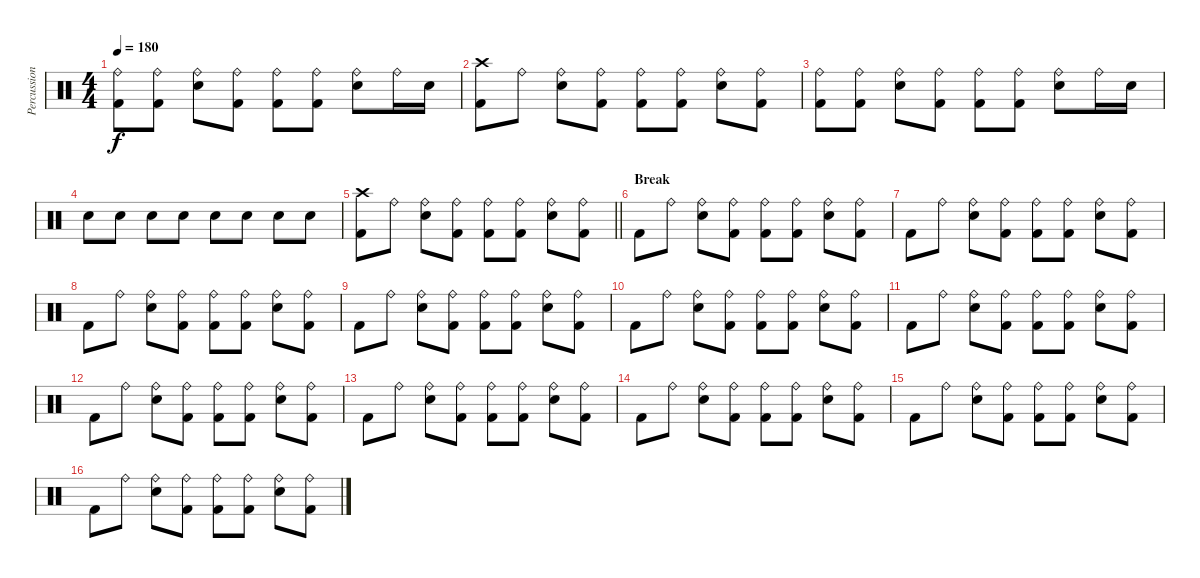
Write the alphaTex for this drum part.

\track ("Percussions" "Percussion") {instrument percussion}
\staff {score}
\articulation defaults
\ts (4 4)
\tempo 180
\clef neutral
\ks c
("Ride (bell)" "Kick (hit) 2").8{dy f} ("Ride (bell)" "Kick (hit) 2").8 ("Ride (bell)" "Snare (hit) 2").8 ("Ride (bell)" "Kick (hit) 2").8 ("Ride (bell)" "Kick (hit) 2").8 ("Ride (bell)" "Kick (hit) 2").8 ("Ride (bell)" "Snare (hit) 2").8 "Ride (bell)".16 "Snare (hit) 2".16 |
("Crash high (hit)" "Kick (hit) 2").8 "Ride (bell)".8 ("Ride (bell)" "Snare (hit) 2").8 ("Ride (bell)" "Kick (hit) 2").8 ("Ride (bell)" "Kick (hit) 2").8 ("Ride (bell)" "Kick (hit) 2").8 ("Ride (bell)" "Snare (hit) 2").8 ("Ride (bell)" "Kick (hit) 2").8 |
("Ride (bell)" "Kick (hit) 2").8 ("Ride (bell)" "Kick (hit) 2").8 ("Ride (bell)" "Snare (hit) 2").8 ("Ride (bell)" "Kick (hit) 2").8 ("Ride (bell)" "Kick (hit) 2").8 ("Ride (bell)" "Kick (hit) 2").8 ("Ride (bell)" "Snare (hit) 2").8 "Ride (bell)".16 "Snare (hit) 2".16 |
"Snare (hit) 2".8 "Snare (hit) 2".8 "Snare (hit) 2".8 "Snare (hit) 2".8 "Snare (hit) 2".8 "Snare (hit) 2".8 "Snare (hit) 2".8 "Snare (hit) 2".8 |
\barLineRight lightlight
("Crash high (hit)" "Kick (hit) 2").8 "Ride (bell)".8 ("Ride (bell)" "Snare (hit) 2").8 ("Ride (bell)" "Kick (hit) 2").8 ("Ride (bell)" "Kick (hit) 2").8 ("Ride (bell)" "Kick (hit) 2").8 ("Ride (bell)" "Snare (hit) 2").8 ("Ride (bell)" "Kick (hit) 2").8 |
\section ("" "Break")
"Kick (hit) 2".8 "Ride (bell)".8 ("Ride (bell)" "Snare (hit) 2").8 ("Ride (bell)" "Kick (hit) 2").8 ("Ride (bell)" "Kick (hit) 2").8 ("Ride (bell)" "Kick (hit) 2").8 ("Ride (bell)" "Snare (hit) 2").8 ("Ride (bell)" "Kick (hit) 2").8 |
"Kick (hit) 2".8 "Ride (bell)".8 ("Ride (bell)" "Snare (hit) 2").8 ("Ride (bell)" "Kick (hit) 2").8 ("Ride (bell)" "Kick (hit) 2").8 ("Ride (bell)" "Kick (hit) 2").8 ("Ride (bell)" "Snare (hit) 2").8 ("Ride (bell)" "Kick (hit) 2").8 |
"Kick (hit) 2".8 "Ride (bell)".8 ("Ride (bell)" "Snare (hit) 2").8 ("Ride (bell)" "Kick (hit) 2").8 ("Ride (bell)" "Kick (hit) 2").8 ("Ride (bell)" "Kick (hit) 2").8 ("Ride (bell)" "Snare (hit) 2").8 ("Ride (bell)" "Kick (hit) 2").8 |
"Kick (hit) 2".8 "Ride (bell)".8 ("Ride (bell)" "Snare (hit) 2").8 ("Ride (bell)" "Kick (hit) 2").8 ("Ride (bell)" "Kick (hit) 2").8 ("Ride (bell)" "Kick (hit) 2").8 ("Ride (bell)" "Snare (hit) 2").8 ("Ride (bell)" "Kick (hit) 2").8 |
"Kick (hit) 2".8 "Ride (bell)".8 ("Ride (bell)" "Snare (hit) 2").8 ("Ride (bell)" "Kick (hit) 2").8 ("Ride (bell)" "Kick (hit) 2").8 ("Ride (bell)" "Kick (hit) 2").8 ("Ride (bell)" "Snare (hit) 2").8 ("Ride (bell)" "Kick (hit) 2").8 |
"Kick (hit) 2".8 "Ride (bell)".8 ("Ride (bell)" "Snare (hit) 2").8 ("Ride (bell)" "Kick (hit) 2").8 ("Ride (bell)" "Kick (hit) 2").8 ("Ride (bell)" "Kick (hit) 2").8 ("Ride (bell)" "Snare (hit) 2").8 ("Ride (bell)" "Kick (hit) 2").8 |
"Kick (hit) 2".8 "Ride (bell)".8 ("Ride (bell)" "Snare (hit) 2").8 ("Ride (bell)" "Kick (hit) 2").8 ("Ride (bell)" "Kick (hit) 2").8 ("Ride (bell)" "Kick (hit) 2").8 ("Ride (bell)" "Snare (hit) 2").8 ("Ride (bell)" "Kick (hit) 2").8 |
"Kick (hit) 2".8 "Ride (bell)".8 ("Ride (bell)" "Snare (hit) 2").8 ("Ride (bell)" "Kick (hit) 2").8 ("Ride (bell)" "Kick (hit) 2").8 ("Ride (bell)" "Kick (hit) 2").8 ("Ride (bell)" "Snare (hit) 2").8 ("Ride (bell)" "Kick (hit) 2").8 |
"Kick (hit) 2".8 "Ride (bell)".8 ("Ride (bell)" "Snare (hit) 2").8 ("Ride (bell)" "Kick (hit) 2").8 ("Ride (bell)" "Kick (hit) 2").8 ("Ride (bell)" "Kick (hit) 2").8 ("Ride (bell)" "Snare (hit) 2").8 ("Ride (bell)" "Kick (hit) 2").8 |
"Kick (hit) 2".8 "Ride (bell)".8 ("Ride (bell)" "Snare (hit) 2").8 ("Ride (bell)" "Kick (hit) 2").8 ("Ride (bell)" "Kick (hit) 2").8 ("Ride (bell)" "Kick (hit) 2").8 ("Ride (bell)" "Snare (hit) 2").8 ("Ride (bell)" "Kick (hit) 2").8 |
"Kick (hit) 2".8 "Ride (bell)".8 ("Ride (bell)" "Snare (hit) 2").8 ("Ride (bell)" "Kick (hit) 2").8 ("Ride (bell)" "Kick (hit) 2").8 ("Ride (bell)" "Kick (hit) 2").8 ("Ride (bell)" "Snare (hit) 2").8 ("Ride (bell)" "Kick (hit) 2").8
